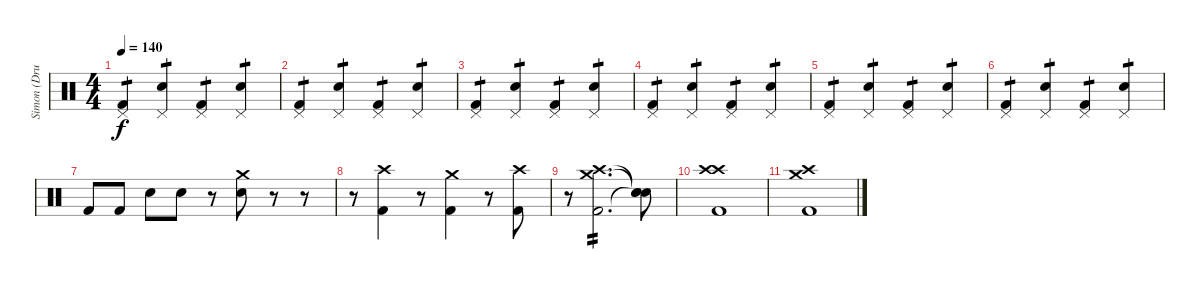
\track ("Simon (Drums)" "Simon (Dru") {instrument percussion}
\staff {score}
\articulation defaults
\ts (4 4)
\tempo 140
\clef neutral
\ks c
("Kick (hit) 2" "Pedal Hi-Hat (hit)").4{tp 1 dy f} ("Snare (hit) 2" "Pedal Hi-Hat (hit)").4{tp 1} ("Kick (hit) 2" "Pedal Hi-Hat (hit)").4{tp 1} ("Snare (hit) 2" "Pedal Hi-Hat (hit)").4{tp 1} |
("Kick (hit) 2" "Pedal Hi-Hat (hit)").4{tp 1} ("Snare (hit) 2" "Pedal Hi-Hat (hit)").4{tp 1} ("Kick (hit) 2" "Pedal Hi-Hat (hit)").4{tp 1} ("Snare (hit) 2" "Pedal Hi-Hat (hit)").4{tp 1} |
("Kick (hit) 2" "Pedal Hi-Hat (hit)").4{tp 1} ("Snare (hit) 2" "Pedal Hi-Hat (hit)").4{tp 1} ("Kick (hit) 2" "Pedal Hi-Hat (hit)").4{tp 1} ("Snare (hit) 2" "Pedal Hi-Hat (hit)").4{tp 1} |
("Kick (hit) 2" "Pedal Hi-Hat (hit)").4{tp 1} ("Snare (hit) 2" "Pedal Hi-Hat (hit)").4{tp 1} ("Kick (hit) 2" "Pedal Hi-Hat (hit)").4{tp 1} ("Snare (hit) 2" "Pedal Hi-Hat (hit)").4{tp 1} |
("Kick (hit) 2" "Pedal Hi-Hat (hit)").4{tp 1} ("Snare (hit) 2" "Pedal Hi-Hat (hit)").4{tp 1} ("Kick (hit) 2" "Pedal Hi-Hat (hit)").4{tp 1} ("Snare (hit) 2" "Pedal Hi-Hat (hit)").4{tp 1} |
("Kick (hit) 2" "Pedal Hi-Hat (hit)").4{tp 1} ("Snare (hit) 2" "Pedal Hi-Hat (hit)").4{tp 1} ("Kick (hit) 2" "Pedal Hi-Hat (hit)").4{tp 1} ("Snare (hit) 2" "Pedal Hi-Hat (hit)").4{tp 1} |
"Kick (hit) 2".8 "Kick (hit) 2".8 "Snare (hit) 2".8 "Snare (hit) 2".8 r.8 ("Snare (hit) 2" "Crash medium (hit)").8 r.8 r.8 |
r.8 ("Kick (hit) 2" "Crash high (hit)").4 r.8 ("Kick (hit) 2" "Crash medium (hit)").4 r.8 ("Kick (hit) 2" "Crash high (hit)").8 |
r.8 ("Crash medium (hit)" "Kick (hit) 2" "Crash high (hit)").2{d tp 2} ("Snare (hit)"{t} "Snare (hit)"{t} "Snare (hit)"{t}).8 |
("Crash high (hit)" "Kick (hit) 2" "Crash high (hit)").1 |
("Crash medium (hit)" "Kick (hit) 2" "Crash high (hit)").1
